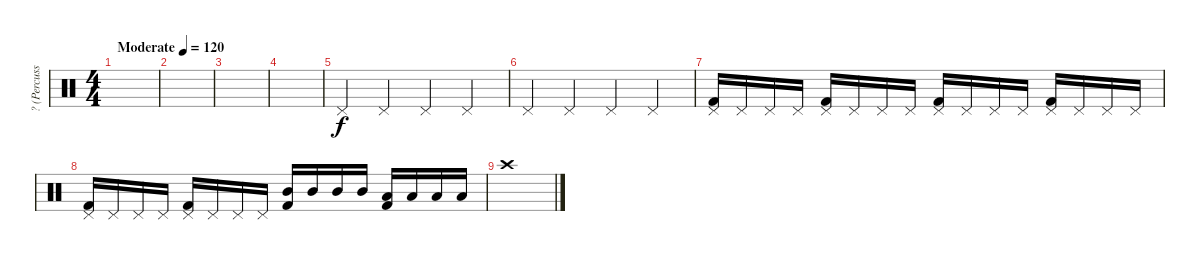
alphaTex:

\track ("? (Percussion)" "? (Percuss") {instrument percussion}
\staff {score}
\articulation defaults
\ts (4 4)
\tempo (120 "Moderate")
\clef neutral
\ks c
|
|
|
|
"Pedal Hi-Hat (hit)".4 "Pedal Hi-Hat (hit)".4 "Pedal Hi-Hat (hit)".4 "Pedal Hi-Hat (hit)".4 |
"Pedal Hi-Hat (hit)".4 "Pedal Hi-Hat (hit)".4 "Pedal Hi-Hat (hit)".4 "Pedal Hi-Hat (hit)".4 |
("Pedal Hi-Hat (hit)" "Kick (hit) 2").16 "Pedal Hi-Hat (hit)".16 "Pedal Hi-Hat (hit)".16 "Pedal Hi-Hat (hit)".16 ("Pedal Hi-Hat (hit)" "Kick (hit) 2").16 "Pedal Hi-Hat (hit)".16 "Pedal Hi-Hat (hit)".16 "Pedal Hi-Hat (hit)".16 ("Pedal Hi-Hat (hit)" "Kick (hit) 2").16 "Pedal Hi-Hat (hit)".16 "Pedal Hi-Hat (hit)".16 "Pedal Hi-Hat (hit)".16 ("Pedal Hi-Hat (hit)" "Kick (hit) 2").16 "Pedal Hi-Hat (hit)".16 "Pedal Hi-Hat (hit)".16 "Pedal Hi-Hat (hit)".16 |
("Pedal Hi-Hat (hit)" "Kick (hit) 2").16 "Pedal Hi-Hat (hit)".16 "Pedal Hi-Hat (hit)".16 "Pedal Hi-Hat (hit)".16 ("Pedal Hi-Hat (hit)" "Kick (hit) 2").16 "Pedal Hi-Hat (hit)".16 "Pedal Hi-Hat (hit)".16 "Pedal Hi-Hat (hit)".16 ("Mid Tom (hit)" "Kick (hit) 2").16 "Mid Tom (hit)".16 "Mid Tom (hit)".16 "Mid Tom (hit)".16 ("Low Tom (hit)" "Kick (hit) 2").16 "Low Tom (hit)".16 "Low Tom (hit)".16 "Low Tom (hit)".16 |
"Crash high (hit)".1
